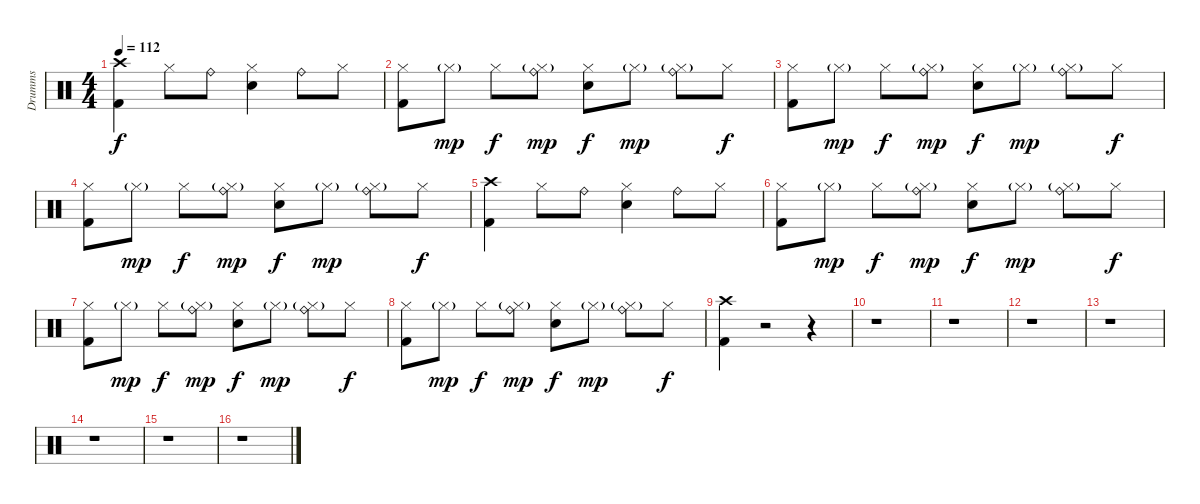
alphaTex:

\track ("Drumms" "Drumms") {instrument percussion}
\staff {score}
\articulation defaults
\ts (4 4)
\tempo 112
\clef neutral
\ks c
("Kick (hit) 2" "Crash high (hit)").4{dy f} "Hi-Hat (closed)".8 "Ride (bell)".8 ("Hi-Hat (closed)" "Snare (hit) 2").4 "Ride (bell)".8 "Hi-Hat (closed)".8 |
("Kick (hit) 2" "Hi-Hat (closed)").8 "Hi-Hat (closed)"{g}.8{dy mp} "Hi-Hat (closed)".8{dy f} ("Ride (bell)" "Hi-Hat (closed)"{g}).8{dy mp} ("Hi-Hat (closed)" "Snare (hit) 2").8{dy f} "Hi-Hat (closed)"{g}.8{dy mp} ("Ride (bell)" "Hi-Hat (closed)"{g}).8 "Hi-Hat (closed)".8{dy f} |
("Kick (hit) 2" "Hi-Hat (closed)").8 "Hi-Hat (closed)"{g}.8{dy mp} "Hi-Hat (closed)".8{dy f} ("Ride (bell)" "Hi-Hat (closed)"{g}).8{dy mp} ("Hi-Hat (closed)" "Snare (hit) 2").8{dy f} "Hi-Hat (closed)"{g}.8{dy mp} ("Ride (bell)" "Hi-Hat (closed)"{g}).8 "Hi-Hat (closed)".8{dy f} |
("Kick (hit) 2" "Hi-Hat (closed)").8 "Hi-Hat (closed)"{g}.8{dy mp} "Hi-Hat (closed)".8{dy f} ("Ride (bell)" "Hi-Hat (closed)"{g}).8{dy mp} ("Hi-Hat (closed)" "Snare (hit) 2").8{dy f} "Hi-Hat (closed)"{g}.8{dy mp} ("Ride (bell)" "Hi-Hat (closed)"{g}).8 "Hi-Hat (closed)".8{dy f} |
("Kick (hit) 2" "Crash high (hit)").4 "Hi-Hat (closed)".8 "Ride (bell)".8 ("Hi-Hat (closed)" "Snare (hit) 2").4 "Ride (bell)".8 "Hi-Hat (closed)".8 |
("Kick (hit) 2" "Hi-Hat (closed)").8 "Hi-Hat (closed)"{g}.8{dy mp} "Hi-Hat (closed)".8{dy f} ("Ride (bell)" "Hi-Hat (closed)"{g}).8{dy mp} ("Hi-Hat (closed)" "Snare (hit) 2").8{dy f} "Hi-Hat (closed)"{g}.8{dy mp} ("Ride (bell)" "Hi-Hat (closed)"{g}).8 "Hi-Hat (closed)".8{dy f} |
("Kick (hit) 2" "Hi-Hat (closed)").8 "Hi-Hat (closed)"{g}.8{dy mp} "Hi-Hat (closed)".8{dy f} ("Ride (bell)" "Hi-Hat (closed)"{g}).8{dy mp} ("Hi-Hat (closed)" "Snare (hit) 2").8{dy f} "Hi-Hat (closed)"{g}.8{dy mp} ("Ride (bell)" "Hi-Hat (closed)"{g}).8 "Hi-Hat (closed)".8{dy f} |
("Kick (hit) 2" "Hi-Hat (closed)").8 "Hi-Hat (closed)"{g}.8{dy mp} "Hi-Hat (closed)".8{dy f} ("Ride (bell)" "Hi-Hat (closed)"{g}).8{dy mp} ("Hi-Hat (closed)" "Snare (hit) 2").8{dy f} "Hi-Hat (closed)"{g}.8{dy mp} ("Ride (bell)" "Hi-Hat (closed)"{g}).8 "Hi-Hat (closed)".8{dy f} |
("Kick (hit) 2" "Crash high (hit)").4 r.2 r.4 |
r.1 |
r.1 |
r.1 |
r.1 |
r.1 |
r.1 |
r.1
